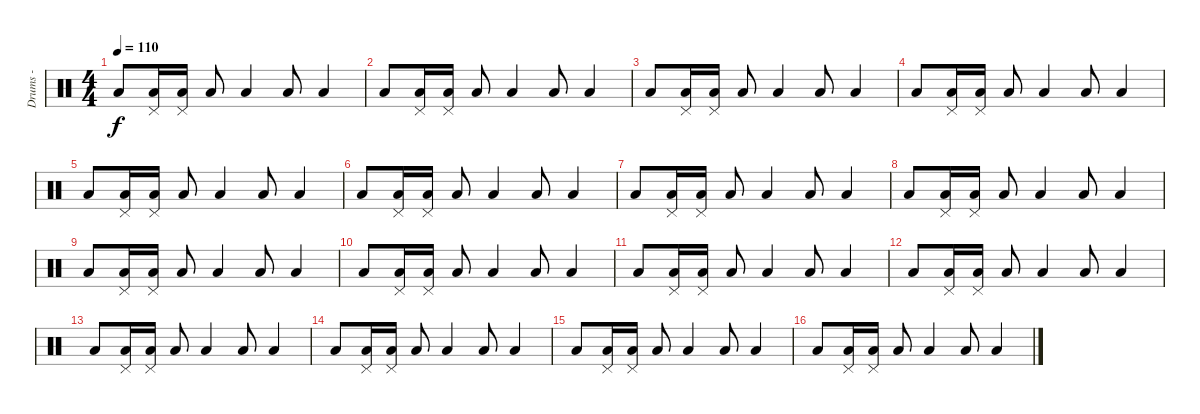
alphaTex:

\track ("Drums - " "Drums - ") {instrument percussion}
\staff {score}
\articulation defaults
\ts (4 4)
\tempo 110
\clef neutral
\ks c "Low Tom (hit)".8{dy f}
("Pedal Hi-Hat (hit)" "Low Tom (hit)").16 ("Pedal Hi-Hat (hit)" "Low Tom (hit)").16 "Low Tom (hit)".8 "Low Tom (hit)".4 "Low Tom (hit)".8 "Low Tom (hit)".4 |
"Low Tom (hit)".8 ("Pedal Hi-Hat (hit)" "Low Tom (hit)").16 ("Pedal Hi-Hat (hit)" "Low Tom (hit)").16 "Low Tom (hit)".8 "Low Tom (hit)".4 "Low Tom (hit)".8 "Low Tom (hit)".4 |
"Low Tom (hit)".8 ("Pedal Hi-Hat (hit)" "Low Tom (hit)").16 ("Pedal Hi-Hat (hit)" "Low Tom (hit)").16 "Low Tom (hit)".8 "Low Tom (hit)".4 "Low Tom (hit)".8 "Low Tom (hit)".4 |
"Low Tom (hit)".8 ("Pedal Hi-Hat (hit)" "Low Tom (hit)").16 ("Pedal Hi-Hat (hit)" "Low Tom (hit)").16 "Low Tom (hit)".8 "Low Tom (hit)".4 "Low Tom (hit)".8 "Low Tom (hit)".4 |
"Low Tom (hit)".8 ("Pedal Hi-Hat (hit)" "Low Tom (hit)").16 ("Pedal Hi-Hat (hit)" "Low Tom (hit)").16 "Low Tom (hit)".8 "Low Tom (hit)".4 "Low Tom (hit)".8 "Low Tom (hit)".4 |
"Low Tom (hit)".8 ("Pedal Hi-Hat (hit)" "Low Tom (hit)").16 ("Pedal Hi-Hat (hit)" "Low Tom (hit)").16 "Low Tom (hit)".8 "Low Tom (hit)".4 "Low Tom (hit)".8 "Low Tom (hit)".4 |
"Low Tom (hit)".8 ("Pedal Hi-Hat (hit)" "Low Tom (hit)").16 ("Pedal Hi-Hat (hit)" "Low Tom (hit)").16 "Low Tom (hit)".8 "Low Tom (hit)".4 "Low Tom (hit)".8 "Low Tom (hit)".4 |
"Low Tom (hit)".8 ("Pedal Hi-Hat (hit)" "Low Tom (hit)").16 ("Pedal Hi-Hat (hit)" "Low Tom (hit)").16 "Low Tom (hit)".8 "Low Tom (hit)".4 "Low Tom (hit)".8 "Low Tom (hit)".4 |
"Low Tom (hit)".8 ("Pedal Hi-Hat (hit)" "Low Tom (hit)").16 ("Pedal Hi-Hat (hit)" "Low Tom (hit)").16 "Low Tom (hit)".8 "Low Tom (hit)".4 "Low Tom (hit)".8 "Low Tom (hit)".4 |
"Low Tom (hit)".8 ("Pedal Hi-Hat (hit)" "Low Tom (hit)").16 ("Pedal Hi-Hat (hit)" "Low Tom (hit)").16 "Low Tom (hit)".8 "Low Tom (hit)".4 "Low Tom (hit)".8 "Low Tom (hit)".4 |
"Low Tom (hit)".8 ("Pedal Hi-Hat (hit)" "Low Tom (hit)").16 ("Pedal Hi-Hat (hit)" "Low Tom (hit)").16 "Low Tom (hit)".8 "Low Tom (hit)".4 "Low Tom (hit)".8 "Low Tom (hit)".4 |
"Low Tom (hit)".8 ("Pedal Hi-Hat (hit)" "Low Tom (hit)").16 ("Pedal Hi-Hat (hit)" "Low Tom (hit)").16 "Low Tom (hit)".8 "Low Tom (hit)".4 "Low Tom (hit)".8 "Low Tom (hit)".4 |
"Low Tom (hit)".8 ("Pedal Hi-Hat (hit)" "Low Tom (hit)").16 ("Pedal Hi-Hat (hit)" "Low Tom (hit)").16 "Low Tom (hit)".8 "Low Tom (hit)".4 "Low Tom (hit)".8 "Low Tom (hit)".4 |
"Low Tom (hit)".8 ("Pedal Hi-Hat (hit)" "Low Tom (hit)").16 ("Pedal Hi-Hat (hit)" "Low Tom (hit)").16 "Low Tom (hit)".8 "Low Tom (hit)".4 "Low Tom (hit)".8 "Low Tom (hit)".4 |
"Low Tom (hit)".8 ("Pedal Hi-Hat (hit)" "Low Tom (hit)").16 ("Pedal Hi-Hat (hit)" "Low Tom (hit)").16 "Low Tom (hit)".8 "Low Tom (hit)".4 "Low Tom (hit)".8 "Low Tom (hit)".4 |
"Low Tom (hit)".8 ("Pedal Hi-Hat (hit)" "Low Tom (hit)").16 ("Pedal Hi-Hat (hit)" "Low Tom (hit)").16 "Low Tom (hit)".8 "Low Tom (hit)".4 "Low Tom (hit)".8 "Low Tom (hit)".4
